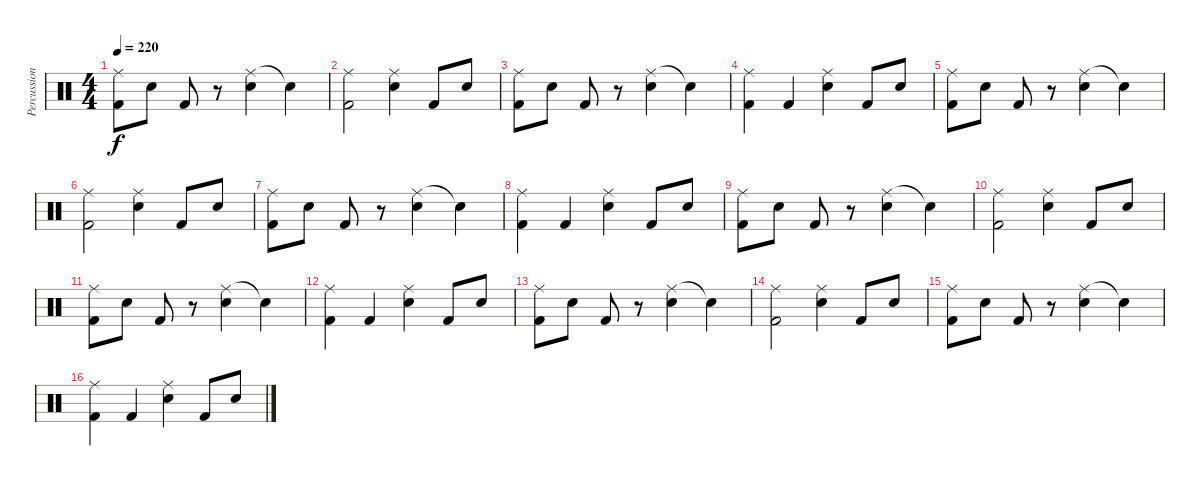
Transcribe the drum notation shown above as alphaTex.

\track ("Percussions" "Percussion") {instrument percussion}
\staff {score}
\articulation defaults
\ts (4 4)
\tempo 220
\clef neutral
\ks c
("Ride (middle)" "Kick (hit) 2").8{dy f} "Electric Snare (hit)".8 "Kick (hit) 2".8 r.8 ("Ride (middle)" "Electric Snare (hit)").4 "Electric Snare (hit)"{t}.4 |
("Ride (middle)" "Kick (hit) 2").2 ("Ride (middle)" "Electric Snare (hit)").4 "Kick (hit) 2".8 "Electric Snare (hit)".8 |
("Ride (middle)" "Kick (hit) 2").8 "Electric Snare (hit)".8 "Kick (hit) 2".8 r.8 ("Ride (middle)" "Electric Snare (hit)").4 "Snare (hit)"{t}.4 |
("Ride (middle)" "Kick (hit) 2").4 "Kick (hit) 2".4 ("Ride (middle)" "Electric Snare (hit)").4 "Kick (hit) 2".8 "Electric Snare (hit)".8 |
("Ride (middle)" "Kick (hit) 2").8 "Electric Snare (hit)".8 "Kick (hit) 2".8 r.8 ("Ride (middle)" "Electric Snare (hit)").4 "Electric Snare (hit)"{t}.4 |
("Ride (middle)" "Kick (hit) 2").2 ("Ride (middle)" "Electric Snare (hit)").4 "Kick (hit) 2".8 "Electric Snare (hit)".8 |
("Ride (middle)" "Kick (hit) 2").8 "Electric Snare (hit)".8 "Kick (hit) 2".8 r.8 ("Ride (middle)" "Electric Snare (hit)").4 "Snare (hit)"{t}.4 |
("Ride (middle)" "Kick (hit) 2").4 "Kick (hit) 2".4 ("Ride (middle)" "Electric Snare (hit)").4 "Kick (hit) 2".8 "Electric Snare (hit)".8 |
("Ride (middle)" "Kick (hit) 2").8 "Electric Snare (hit)".8 "Kick (hit) 2".8 r.8 ("Ride (middle)" "Electric Snare (hit)").4 "Electric Snare (hit)"{t}.4 |
("Ride (middle)" "Kick (hit) 2").2 ("Ride (middle)" "Electric Snare (hit)").4 "Kick (hit) 2".8 "Electric Snare (hit)".8 |
("Ride (middle)" "Kick (hit) 2").8 "Electric Snare (hit)".8 "Kick (hit) 2".8 r.8 ("Ride (middle)" "Electric Snare (hit)").4 "Snare (hit)"{t}.4 |
("Ride (middle)" "Kick (hit) 2").4 "Kick (hit) 2".4 ("Ride (middle)" "Electric Snare (hit)").4 "Kick (hit) 2".8 "Electric Snare (hit)".8 |
("Ride (middle)" "Kick (hit) 2").8 "Electric Snare (hit)".8 "Kick (hit) 2".8 r.8 ("Ride (middle)" "Electric Snare (hit)").4 "Electric Snare (hit)"{t}.4 |
("Ride (middle)" "Kick (hit) 2").2 ("Ride (middle)" "Electric Snare (hit)").4 "Kick (hit) 2".8 "Electric Snare (hit)".8 |
("Ride (middle)" "Kick (hit) 2").8 "Electric Snare (hit)".8 "Kick (hit) 2".8 r.8 ("Ride (middle)" "Electric Snare (hit)").4 "Snare (hit)"{t}.4 |
("Ride (middle)" "Kick (hit) 2").4 "Kick (hit) 2".4 ("Ride (middle)" "Electric Snare (hit)").4 "Kick (hit) 2".8 "Electric Snare (hit)".8
